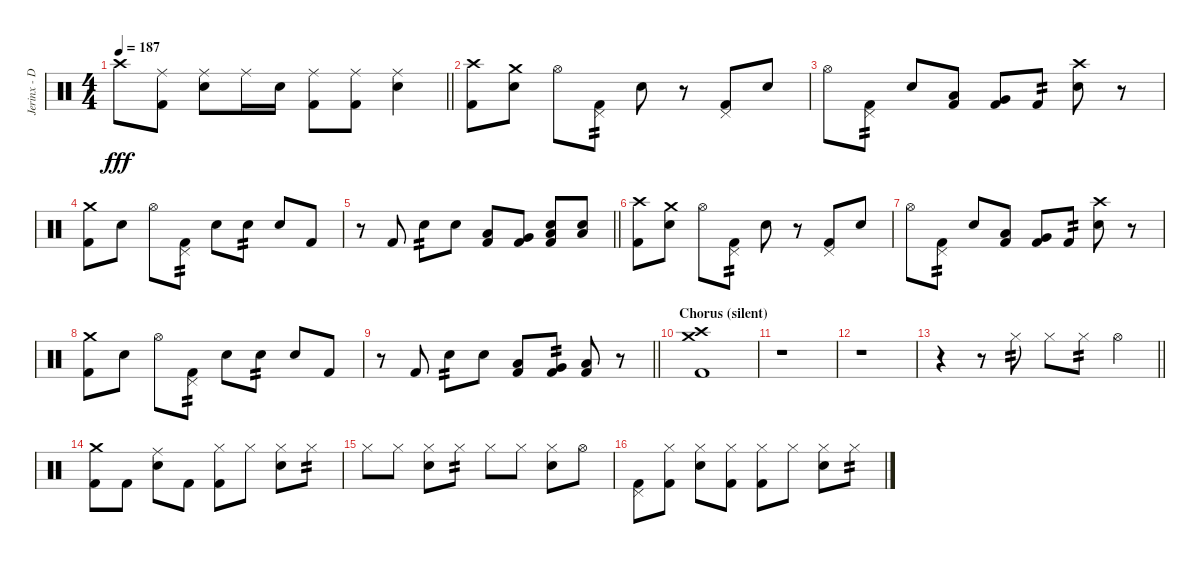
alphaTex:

\track ("Jerinx - Drum" "Jerinx - D") {instrument percussion}
\staff {score}
\articulation defaults
\ts (4 4)
\tempo 187
\clef neutral
\barLineRight lightlight
\ks c "Crash high (hit)".8{dy fff}
("Kick (hit) 2" "Ride (middle)").8 ("Snare (hit) 2" "Ride (middle)").8 "Ride (middle)".16 "Snare (hit) 2".16 ("Kick (hit) 2" "Ride (middle)").8 ("Kick (hit) 2" "Ride (middle)").8 ("Snare (hit) 2" "Ride (middle)").4 |
("Kick (hit) 2" "Crash high (hit)").8 ("Snare (hit) 2" "Crash medium (hit)").8 "Hi-Hat (open)".8 ("Pedal Hi-Hat (hit)" "Kick (hit) 2").8{tp 2} "Snare (hit) 2".8 r.8 ("Pedal Hi-Hat (hit)" "Kick (hit) 2").8 "Snare (hit) 2".8 |
"Hi-Hat (open)".8 ("Pedal Hi-Hat (hit)" "Kick (hit) 2").8{tp 2} "Snare (hit) 2".8 ("Kick (hit) 2" "Low Tom (hit)").8 ("Kick (hit) 2" "Very Low Tom (hit)").8 "Kick (hit) 2".8{tp 2} ("Snare (hit) 2" "Crash high (hit)").8 r.8 |
("Kick (hit) 2" "Crash medium (hit)").8 "Snare (hit) 2".8 "Hi-Hat (open)".8 ("Pedal Hi-Hat (hit)" "Kick (hit) 2").8{tp 2} "Snare (hit) 2".8 "Snare (hit) 2".8{tp 2} "Snare (hit) 2".8 "Kick (hit) 2".8 |
\barLineRight lightlight
r.8 "Kick (hit) 2".8 "Snare (hit) 2".8{tp 2} "Snare (hit) 2".8 ("Kick (hit) 2" "Low Tom (hit)").8 ("Kick (hit) 2" "Very Low Tom (hit)").8 ("Snare (hit) 2" "Kick (hit) 2" "Low Floor Tom (hit)").8 ("Snare (hit) 2" "Low Floor Tom (hit)").8 |
("Kick (hit) 2" "Crash high (hit)").8 ("Snare (hit) 2" "Crash medium (hit)").8 "Hi-Hat (open)".8 ("Pedal Hi-Hat (hit)" "Kick (hit) 2").8{tp 2} "Snare (hit) 2".8 r.8 ("Pedal Hi-Hat (hit)" "Kick (hit) 2").8 "Snare (hit) 2".8 |
"Hi-Hat (open)".8 ("Pedal Hi-Hat (hit)" "Kick (hit) 2").8{tp 2} "Snare (hit) 2".8 ("Kick (hit) 2" "Low Tom (hit)").8 ("Kick (hit) 2" "Very Low Tom (hit)").8 "Kick (hit) 2".8{tp 2} ("Snare (hit) 2" "Crash high (hit)").8 r.8 |
("Kick (hit) 2" "Crash medium (hit)").8 "Snare (hit) 2".8 "Hi-Hat (open)".8 ("Pedal Hi-Hat (hit)" "Kick (hit) 2").8{tp 2} "Snare (hit) 2".8 "Snare (hit) 2".8{tp 2} "Snare (hit) 2".8 "Kick (hit) 2".8 |
\barLineRight lightlight
r.8 "Kick (hit) 2".8 "Snare (hit) 2".8{tp 2} "Snare (hit) 2".8 ("Kick (hit) 2" "Low Tom (hit)").8 ("Kick (hit) 2" "Very Low Tom (hit)").8{tp 2} ("Kick (hit) 2" "Low Floor Tom (hit)").8 r.8 |
\section ("" "Chorus (silent)")
("Kick (hit) 2" "Crash medium (hit)" "Crash high (hit)").1 |
r.1 |
r.1 |
\barLineRight lightlight
r.4 r.8 "Hi-Hat (closed)".8{tp 2} "Hi-Hat (closed)".8 "Hi-Hat (closed)".8{tp 2} "Hi-Hat (open)".4 |
("Kick (hit) 2" "Crash medium (hit)").8 "Kick (hit) 2".8 ("Snare (hit) 2" "Ride (middle)").8 "Kick (hit) 2".8 ("Hi-Hat (closed)" "Kick (hit) 2").8 "Hi-Hat (closed)".8 ("Hi-Hat (closed)" "Snare (hit) 2").8 "Hi-Hat (closed)".8{tp 2} |
"Hi-Hat (closed)".8 "Hi-Hat (closed)".8 ("Hi-Hat (closed)" "Snare (hit) 2").8 "Hi-Hat (closed)".8{tp 2} "Hi-Hat (closed)".8 "Hi-Hat (closed)".8 ("Hi-Hat (closed)" "Snare (hit) 2").8 "Hi-Hat (open)".8 |
("Pedal Hi-Hat (hit)" "Kick (hit) 2").8 ("Hi-Hat (closed)" "Kick (hit) 2").8 ("Hi-Hat (closed)" "Snare (hit) 2").8 ("Hi-Hat (closed)" "Kick (hit) 2").8 ("Hi-Hat (closed)" "Kick (hit) 2").8 "Hi-Hat (closed)".8 ("Hi-Hat (closed)" "Snare (hit) 2").8 "Hi-Hat (closed)".8{tp 2}
